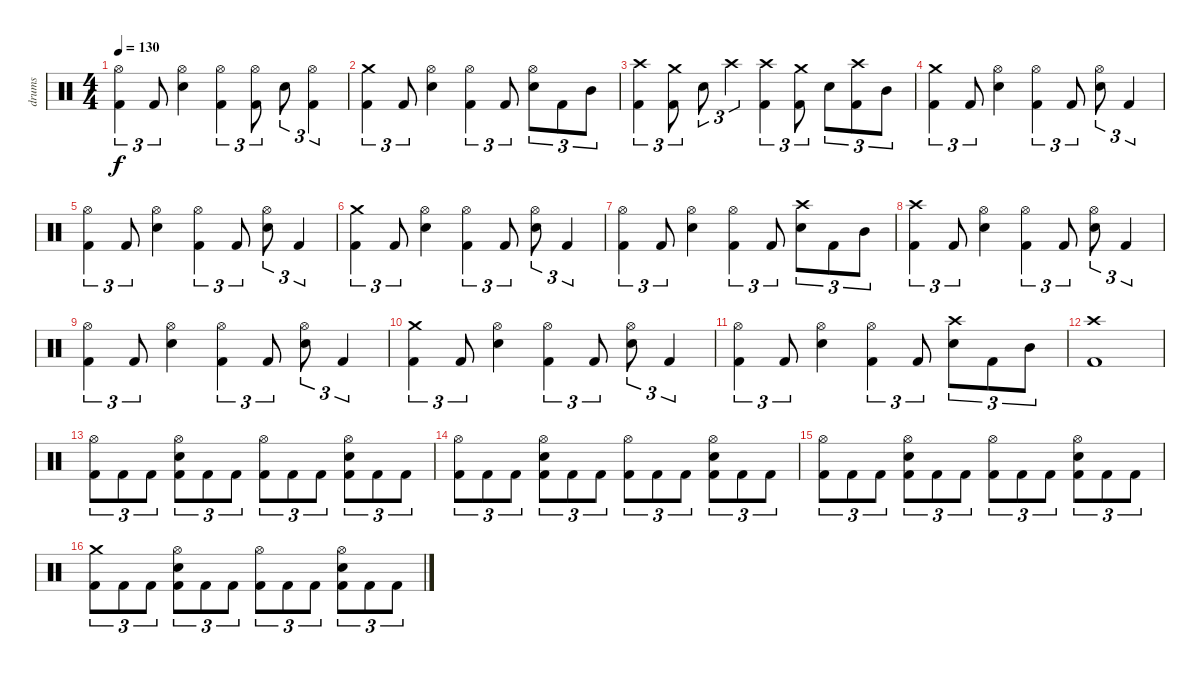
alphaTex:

\track ("drums" "drums") {instrument percussion}
\staff {score}
\articulation defaults
\ts (4 4)
\tempo 130
\clef neutral
\ks c
("Hi-Hat (open)" "Kick (hit) 2").4{tu (3 2) dy f} "Kick (hit) 2".8{tu (3 2)} ("Hi-Hat (open)" "Electric Snare (hit)").4 ("Hi-Hat (open)" "Kick (hit) 2").4{tu (3 2)} ("Hi-Hat (open)" "Kick (hit) 2").8{tu (3 2)} "Electric Snare (hit)".8{tu (3 2)} ("Hi-Hat (open)" "Kick (hit) 2").4{tu (3 2)} |
("Crash medium (hit)" "Kick (hit) 2").4{tu (3 2)} "Kick (hit) 2".8{tu (3 2)} ("Hi-Hat (open)" "Electric Snare (hit)").4 ("Hi-Hat (open)" "Kick (hit) 2").4{tu (3 2)} "Kick (hit) 2".8{tu (3 2)} ("Hi-Hat (open)" "Electric Snare (hit)").8{tu (3 2)} "Kick (hit) 2".8{tu (3 2)} "Mid Tom (hit)".8{tu (3 2)} |
("Crash high (hit)" "Kick (hit) 2").4{tu (3 2)} ("Crash medium (hit)" "Kick (hit) 2").8{tu (3 2)} "Electric Snare (hit)".8{tu (3 2)} "Crash high (hit)".4{tu (3 2)} ("Crash high (hit)" "Kick (hit) 2").4{tu (3 2)} ("Crash medium (hit)" "Kick (hit) 2").8{tu (3 2)} "Electric Snare (hit)".8{tu (3 2)} ("Crash high (hit)" "Kick (hit) 2").8{tu (3 2)} "Mid Tom (hit)".8{tu (3 2)} |
("Crash medium (hit)" "Kick (hit) 2").4{tu (3 2)} "Kick (hit) 2".8{tu (3 2)} ("Hi-Hat (open)" "Electric Snare (hit)").4 ("Hi-Hat (open)" "Kick (hit) 2").4{tu (3 2)} "Kick (hit) 2".8{tu (3 2)} ("Hi-Hat (open)" "Electric Snare (hit)").8{tu (3 2)} "Kick (hit) 2".4{tu (3 2)} |
("Hi-Hat (open)" "Kick (hit) 2").4{tu (3 2)} "Kick (hit) 2".8{tu (3 2)} ("Hi-Hat (open)" "Electric Snare (hit)").4 ("Hi-Hat (open)" "Kick (hit) 2").4{tu (3 2)} "Kick (hit) 2".8{tu (3 2)} ("Hi-Hat (open)" "Electric Snare (hit)").8{tu (3 2)} "Kick (hit) 2".4{tu (3 2)} |
("Crash medium (hit)" "Kick (hit) 2").4{tu (3 2)} "Kick (hit) 2".8{tu (3 2)} ("Hi-Hat (open)" "Electric Snare (hit)").4 ("Hi-Hat (open)" "Kick (hit) 2").4{tu (3 2)} "Kick (hit) 2".8{tu (3 2)} ("Hi-Hat (open)" "Electric Snare (hit)").8{tu (3 2)} "Kick (hit) 2".4{tu (3 2)} |
("Hi-Hat (open)" "Kick (hit) 2").4{tu (3 2)} "Kick (hit) 2".8{tu (3 2)} ("Hi-Hat (open)" "Electric Snare (hit)").4 ("Hi-Hat (open)" "Kick (hit) 2").4{tu (3 2)} "Kick (hit) 2".8{tu (3 2)} ("Crash high (hit)" "Electric Snare (hit)").8{tu (3 2)} "Kick (hit) 2".8{tu (3 2)} "Mid Tom (hit)".8{tu (3 2)} |
("Crash high (hit)" "Kick (hit) 2").4{tu (3 2)} "Kick (hit) 2".8{tu (3 2)} ("Hi-Hat (open)" "Electric Snare (hit)").4 ("Hi-Hat (open)" "Kick (hit) 2").4{tu (3 2)} "Kick (hit) 2".8{tu (3 2)} ("Hi-Hat (open)" "Electric Snare (hit)").8{tu (3 2)} "Kick (hit) 2".4{tu (3 2)} |
("Hi-Hat (open)" "Kick (hit) 2").4{tu (3 2)} "Kick (hit) 2".8{tu (3 2)} ("Hi-Hat (open)" "Electric Snare (hit)").4 ("Hi-Hat (open)" "Kick (hit) 2").4{tu (3 2)} "Kick (hit) 2".8{tu (3 2)} ("Hi-Hat (open)" "Electric Snare (hit)").8{tu (3 2)} "Kick (hit) 2".4{tu (3 2)} |
("Crash medium (hit)" "Kick (hit) 2").4{tu (3 2)} "Kick (hit) 2".8{tu (3 2)} ("Hi-Hat (open)" "Electric Snare (hit)").4 ("Hi-Hat (open)" "Kick (hit) 2").4{tu (3 2)} "Kick (hit) 2".8{tu (3 2)} ("Hi-Hat (open)" "Electric Snare (hit)").8{tu (3 2)} "Kick (hit) 2".4{tu (3 2)} |
("Hi-Hat (open)" "Kick (hit) 2").4{tu (3 2)} "Kick (hit) 2".8{tu (3 2)} ("Hi-Hat (open)" "Electric Snare (hit)").4 ("Hi-Hat (open)" "Kick (hit) 2").4{tu (3 2)} "Kick (hit) 2".8{tu (3 2)} ("Crash high (hit)" "Electric Snare (hit)").8{tu (3 2)} "Kick (hit) 2".8{tu (3 2)} "Mid Tom (hit)".8{tu (3 2)} |
("Crash high (hit)" "Kick (hit) 2").1 |
("Hi-Hat (open)" "Kick (hit) 2").8{tu (3 2)} "Kick (hit) 2".8{tu (3 2)} "Kick (hit) 2".8{tu (3 2)} ("Hi-Hat (open)" "Electric Snare (hit)" "Kick (hit) 2").8{tu (3 2)} "Kick (hit) 2".8{tu (3 2)} "Kick (hit) 2".8{tu (3 2)} ("Hi-Hat (open)" "Kick (hit) 2").8{tu (3 2)} "Kick (hit) 2".8{tu (3 2)} "Kick (hit) 2".8{tu (3 2)} ("Hi-Hat (open)" "Electric Snare (hit)" "Kick (hit) 2").8{tu (3 2)} "Kick (hit) 2".8{tu (3 2)} "Kick (hit) 2".8{tu (3 2)} |
("Hi-Hat (open)" "Kick (hit) 2").8{tu (3 2)} "Kick (hit) 2".8{tu (3 2)} "Kick (hit) 2".8{tu (3 2)} ("Hi-Hat (open)" "Electric Snare (hit)" "Kick (hit) 2").8{tu (3 2)} "Kick (hit) 2".8{tu (3 2)} "Kick (hit) 2".8{tu (3 2)} ("Hi-Hat (open)" "Kick (hit) 2").8{tu (3 2)} "Kick (hit) 2".8{tu (3 2)} "Kick (hit) 2".8{tu (3 2)} ("Hi-Hat (open)" "Electric Snare (hit)" "Kick (hit) 2").8{tu (3 2)} "Kick (hit) 2".8{tu (3 2)} "Kick (hit) 2".8{tu (3 2)} |
("Hi-Hat (open)" "Kick (hit) 2").8{tu (3 2)} "Kick (hit) 2".8{tu (3 2)} "Kick (hit) 2".8{tu (3 2)} ("Hi-Hat (open)" "Electric Snare (hit)" "Kick (hit) 2").8{tu (3 2)} "Kick (hit) 2".8{tu (3 2)} "Kick (hit) 2".8{tu (3 2)} ("Hi-Hat (open)" "Kick (hit) 2").8{tu (3 2)} "Kick (hit) 2".8{tu (3 2)} "Kick (hit) 2".8{tu (3 2)} ("Hi-Hat (open)" "Electric Snare (hit)" "Kick (hit) 2").8{tu (3 2)} "Kick (hit) 2".8{tu (3 2)} "Kick (hit) 2".8{tu (3 2)} |
("Crash medium (hit)" "Kick (hit) 2").8{tu (3 2)} "Kick (hit) 2".8{tu (3 2)} "Kick (hit) 2".8{tu (3 2)} ("Hi-Hat (open)" "Electric Snare (hit)" "Kick (hit) 2").8{tu (3 2)} "Kick (hit) 2".8{tu (3 2)} "Kick (hit) 2".8{tu (3 2)} ("Hi-Hat (open)" "Kick (hit) 2").8{tu (3 2)} "Kick (hit) 2".8{tu (3 2)} "Kick (hit) 2".8{tu (3 2)} ("Hi-Hat (open)" "Electric Snare (hit)" "Kick (hit) 2").8{tu (3 2)} "Kick (hit) 2".8{tu (3 2)} "Kick (hit) 2".8{tu (3 2)}
